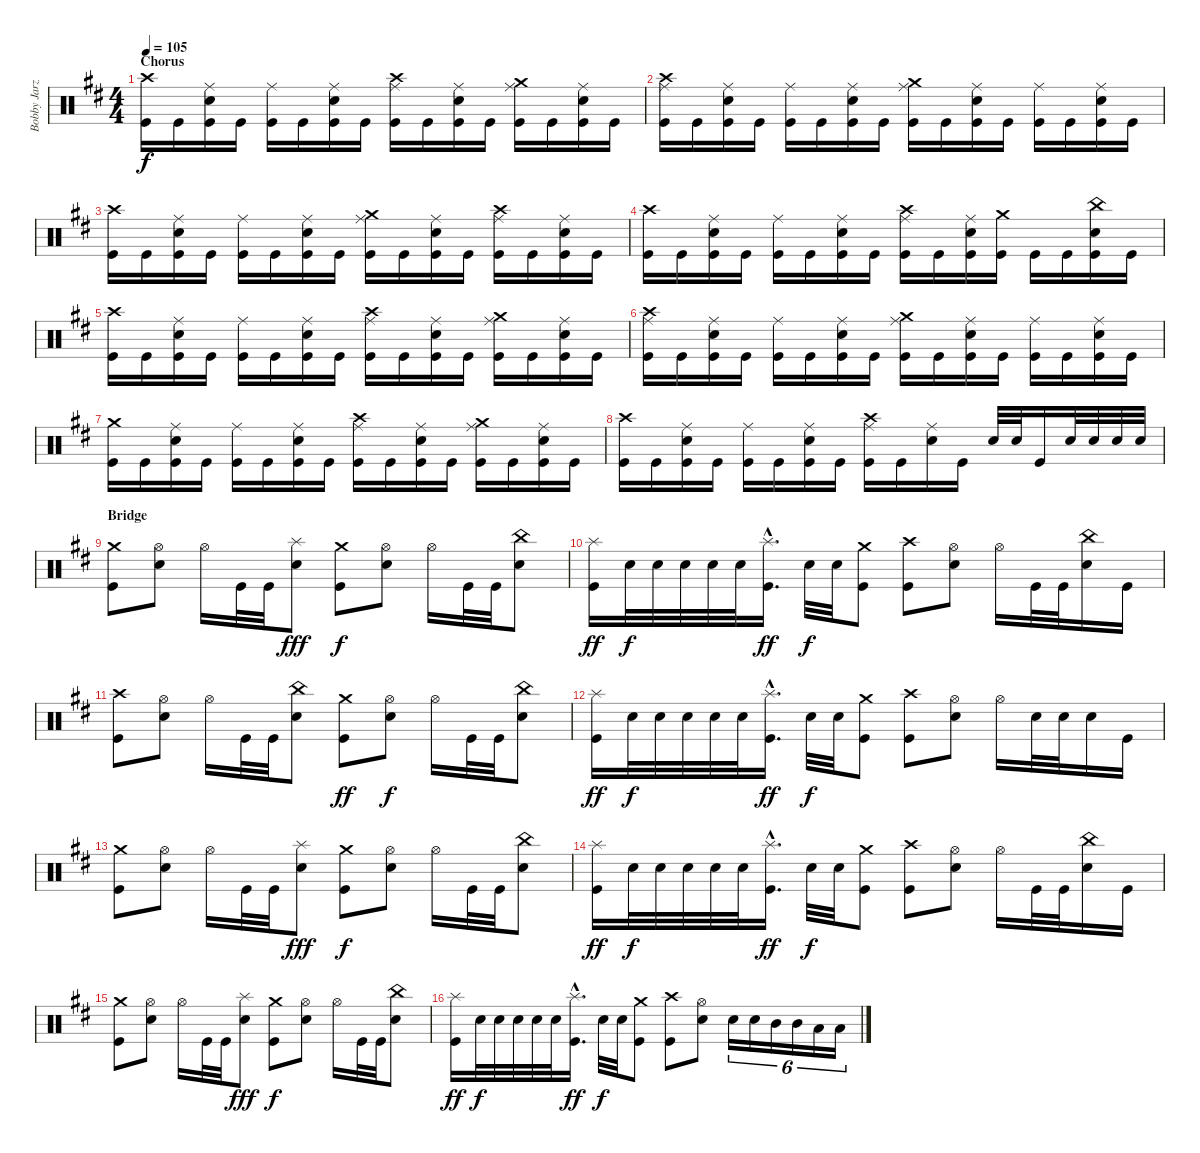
\track ("Bobby Jarzombek" "Bobby Jarz") {instrument percussion}
\staff {score}
\articulation defaults
\ts (4 4)
\section ("" "Chorus")
\tempo 105
\clef neutral
\ks d
("Crash high (hit)" "Kick (hit)").16{dy f} "Kick (hit)".16 ("Ride (middle)" "Electric Snare (hit)" "Kick (hit)").16 "Kick (hit)".16 ("Ride (middle)" "Kick (hit)").16 "Kick (hit)".16 ("Ride (middle)" "Electric Snare (hit)" "Kick (hit)").16 "Kick (hit)".16 ("Crash high (hit)" "Ride (middle)" "Kick (hit)").16 "Kick (hit)".16 ("Ride (middle)" "Electric Snare (hit)" "Kick (hit)").16 "Kick (hit)".16 ("Crash medium (hit)" "Ride (middle)" "Kick (hit)").16 "Kick (hit)".16 ("Ride (middle)" "Electric Snare (hit)" "Kick (hit)").16 "Kick (hit)".16 |
("Crash high (hit)" "Ride (middle)" "Kick (hit)").16 "Kick (hit)".16 ("Ride (middle)" "Electric Snare (hit)" "Kick (hit)").16 "Kick (hit)".16 ("Ride (middle)" "Kick (hit)").16 "Kick (hit)".16 ("Ride (middle)" "Electric Snare (hit)" "Kick (hit)").16 "Kick (hit)".16 ("Crash medium (hit)" "Ride (middle)" "Kick (hit)").16 "Kick (hit)".16 ("Ride (middle)" "Electric Snare (hit)" "Kick (hit)").16 "Kick (hit)".16 ("Ride (middle)" "Kick (hit)").16 "Kick (hit)".16 ("Ride (middle)" "Electric Snare (hit)" "Kick (hit)").16 "Kick (hit)".16 |
("Crash high (hit)" "Kick (hit)").16 "Kick (hit)".16 ("Ride (middle)" "Electric Snare (hit)" "Kick (hit)").16 "Kick (hit)".16 ("Ride (middle)" "Kick (hit)").16 "Kick (hit)".16 ("Ride (middle)" "Electric Snare (hit)" "Kick (hit)").16 "Kick (hit)".16 ("Crash medium (hit)" "Ride (middle)" "Kick (hit)").16 "Kick (hit)".16 ("Ride (middle)" "Electric Snare (hit)" "Kick (hit)").16 "Kick (hit)".16 ("Crash high (hit)" "Ride (middle)" "Kick (hit)").16 "Kick (hit)".16 ("Ride (middle)" "Electric Snare (hit)" "Kick (hit)").16 "Kick (hit)".16 |
("Crash high (hit)" "Kick (hit)").16 "Kick (hit)".16 ("Ride (middle)" "Electric Snare (hit)" "Kick (hit)").16 "Kick (hit)".16 ("Ride (middle)" "Kick (hit)").16 "Kick (hit)".16 ("Ride (middle)" "Electric Snare (hit)" "Kick (hit)").16 "Kick (hit)".16 ("Crash high (hit)" "Ride (middle)" "Kick (hit)").16 "Kick (hit)".16 ("Ride (middle)" "Electric Snare (hit)" "Kick (hit)").16 ("Crash medium (hit)" "Kick (hit)").16 "Kick (hit)".16 "Kick (hit)".16 ("China (hit)" "Electric Snare (hit)" "Kick (hit)").16 "Kick (hit)".16 |
("Crash high (hit)" "Kick (hit)").16 "Kick (hit)".16 ("Ride (middle)" "Electric Snare (hit)" "Kick (hit)").16 "Kick (hit)".16 ("Ride (middle)" "Kick (hit)").16 "Kick (hit)".16 ("Ride (middle)" "Electric Snare (hit)" "Kick (hit)").16 "Kick (hit)".16 ("Crash high (hit)" "Ride (middle)" "Kick (hit)").16 "Kick (hit)".16 ("Ride (middle)" "Electric Snare (hit)" "Kick (hit)").16 "Kick (hit)".16 ("Crash medium (hit)" "Ride (middle)" "Kick (hit)").16 "Kick (hit)".16 ("Ride (middle)" "Electric Snare (hit)" "Kick (hit)").16 "Kick (hit)".16 |
("Crash high (hit)" "Ride (middle)" "Kick (hit)").16 "Kick (hit)".16 ("Ride (middle)" "Electric Snare (hit)" "Kick (hit)").16 "Kick (hit)".16 ("Ride (middle)" "Kick (hit)").16 "Kick (hit)".16 ("Ride (middle)" "Electric Snare (hit)" "Kick (hit)").16 "Kick (hit)".16 ("Crash medium (hit)" "Ride (middle)" "Kick (hit)").16 "Kick (hit)".16 ("Ride (middle)" "Electric Snare (hit)" "Kick (hit)").16 "Kick (hit)".16 ("Ride (middle)" "Kick (hit)").16 "Kick (hit)".16 ("Ride (middle)" "Electric Snare (hit)" "Kick (hit)").16 "Kick (hit)".16 |
("Crash medium (hit)" "Kick (hit)").16 "Kick (hit)".16 ("Ride (middle)" "Electric Snare (hit)" "Kick (hit)").16 "Kick (hit)".16 ("Ride (middle)" "Kick (hit)").16 "Kick (hit)".16 ("Ride (middle)" "Electric Snare (hit)" "Kick (hit)").16 "Kick (hit)".16 ("Crash high (hit)" "Ride (middle)" "Kick (hit)").16 "Kick (hit)".16 ("Ride (middle)" "Electric Snare (hit)" "Kick (hit)").16 "Kick (hit)".16 ("Crash medium (hit)" "Ride (middle)" "Kick (hit)").16 "Kick (hit)".16 ("Ride (middle)" "Electric Snare (hit)" "Kick (hit)").16 "Kick (hit)".16 |
("Crash high (hit)" "Kick (hit)").16 "Kick (hit)".16 ("Ride (middle)" "Electric Snare (hit)" "Kick (hit)").16 "Kick (hit)".16 ("Ride (middle)" "Kick (hit)").16 "Kick (hit)".16 ("Ride (middle)" "Electric Snare (hit)" "Kick (hit)").16 "Kick (hit)".16 ("Crash high (hit)" "Ride (middle)" "Kick (hit)").16 "Kick (hit)".16 ("Ride (middle)" "Electric Snare (hit)").16 "Kick (hit)".16 "Electric Snare (hit)".32 "Electric Snare (hit)".32 "Kick (hit)".16 "Electric Snare (hit)".32 "Electric Snare (hit)".32 "Electric Snare (hit)".32 "Electric Snare (hit)".32 |
\section ("" "Bridge")
("Crash medium (hit)" "Kick (hit)").8 ("Hi-Hat (open)" "Electric Snare (hit)").8 "Hi-Hat (open)".16 "Kick (hit)".32 "Kick (hit)".32 ("Splash (hit)" "Electric Snare (hit)").8{dy fff} ("Crash medium (hit)" "Kick (hit)").8{dy f} ("Hi-Hat (open)" "Electric Snare (hit)").8 "Hi-Hat (open)".16 "Kick (hit)".32 "Kick (hit)".32 ("China (hit)" "Electric Snare (hit)").8 |
("Splash (hit)" "Kick (hit)").16{dy ff} "Electric Snare (hit)".32{dy f} "Electric Snare (hit)".32 "Electric Snare (hit)".32 "Electric Snare (hit)".32 "Electric Snare (hit)".32 ("Splash (hit)"{hac} "Kick (hit)"{hac}).16{d dy ff} "Electric Snare (hit)".32{dy f} "Electric Snare (hit)".32 ("Crash medium (hit)" "Kick (hit)").8 ("Crash high (hit)" "Kick (hit)").8 ("Hi-Hat (open)" "Electric Snare (hit)").8 "Hi-Hat (open)".16 "Kick (hit)".32 "Kick (hit)".32 ("China (hit)" "Electric Snare (hit)").16 "Kick (hit)".16 |
("Crash high (hit)" "Kick (hit)").8 ("Hi-Hat (open)" "Electric Snare (hit)").8 "Hi-Hat (open)".16 "Kick (hit)".32 "Kick (hit)".32 ("China (hit)" "Electric Snare (hit)").8 ("Crash medium (hit)" "Kick (hit)").8{dy ff} ("Hi-Hat (open)" "Electric Snare (hit)").8{dy f} "Hi-Hat (open)".16 "Kick (hit)".32 "Kick (hit)".32 ("China (hit)" "Electric Snare (hit)").8 |
("Splash (hit)" "Kick (hit)").16{dy ff} "Electric Snare (hit)".32{dy f} "Electric Snare (hit)".32 "Electric Snare (hit)".32 "Electric Snare (hit)".32 "Electric Snare (hit)".32 ("Splash (hit)"{hac} "Kick (hit)"{hac}).16{d dy ff} "Electric Snare (hit)".32{dy f} "Electric Snare (hit)".32 ("Crash medium (hit)" "Kick (hit)").8 ("Crash high (hit)" "Kick (hit)").8 ("Hi-Hat (open)" "Electric Snare (hit)").8 "Hi-Hat (open)".16 "Electric Snare (hit)".32 "Electric Snare (hit)".32 "Electric Snare (hit)".16 "Kick (hit)".16 |
("Crash medium (hit)" "Kick (hit)").8 ("Hi-Hat (open)" "Electric Snare (hit)").8 "Hi-Hat (open)".16 "Kick (hit)".32 "Kick (hit)".32 ("Splash (hit)" "Electric Snare (hit)").8{dy fff} ("Crash medium (hit)" "Kick (hit)").8{dy f} ("Hi-Hat (open)" "Electric Snare (hit)").8 "Hi-Hat (open)".16 "Kick (hit)".32 "Kick (hit)".32 ("China (hit)" "Electric Snare (hit)").8 |
("Splash (hit)" "Kick (hit)").16{dy ff} "Electric Snare (hit)".32{dy f} "Electric Snare (hit)".32 "Electric Snare (hit)".32 "Electric Snare (hit)".32 "Electric Snare (hit)".32 ("Splash (hit)"{hac} "Kick (hit)"{hac}).16{d dy ff} "Electric Snare (hit)".32{dy f} "Electric Snare (hit)".32 ("Crash medium (hit)" "Kick (hit)").8 ("Crash high (hit)" "Kick (hit)").8 ("Hi-Hat (open)" "Electric Snare (hit)").8 "Hi-Hat (open)".16 "Kick (hit)".32 "Kick (hit)".32 ("China (hit)" "Electric Snare (hit)").16 "Kick (hit)".16 |
("Crash medium (hit)" "Kick (hit)").8 ("Hi-Hat (open)" "Electric Snare (hit)").8 "Hi-Hat (open)".16 "Kick (hit)".32 "Kick (hit)".32 ("Splash (hit)" "Electric Snare (hit)").8{dy fff} ("Crash medium (hit)" "Kick (hit)").8{dy f} ("Hi-Hat (open)" "Electric Snare (hit)").8 "Hi-Hat (open)".16 "Kick (hit)".32 "Kick (hit)".32 ("China (hit)" "Electric Snare (hit)").8 |
("Splash (hit)" "Kick (hit)").16{dy ff} "Electric Snare (hit)".32{dy f} "Electric Snare (hit)".32 "Electric Snare (hit)".32 "Electric Snare (hit)".32 "Electric Snare (hit)".32 ("Splash (hit)"{hac} "Kick (hit)"{hac}).16{d dy ff} "Electric Snare (hit)".32{dy f} "Electric Snare (hit)".32 ("Crash medium (hit)" "Kick (hit)").8 ("Crash high (hit)" "Kick (hit)").8 ("Hi-Hat (open)" "Electric Snare (hit)").8 "Electric Snare (hit)".16{tu (6 4)} "Electric Snare (hit)".16{tu (6 4)} "Mid Tom (hit)".16{tu (6 4)} "Mid Tom (hit)".16{tu (6 4)} "Low Tom (hit)".16{tu (6 4)} "Low Tom (hit)".16{tu (6 4)}
